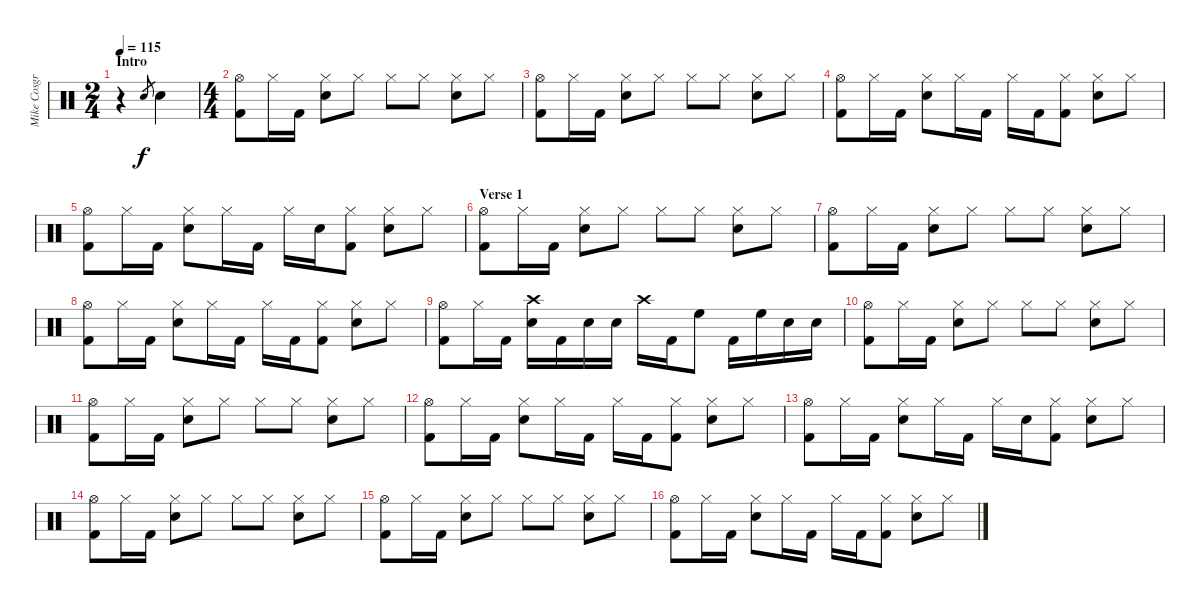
\track ("Mike Cosgrove" "Mike Cosgr") {instrument percussion}
\staff {score}
\articulation defaults
\ts (2 4)
\section ("" "Intro")
\tempo 115
\clef neutral
\ks c
r.4{dy f} "Electric Snare (hit)".8{gr} "Electric Snare (hit)".4 |
\ts (4 4)
("Hi-Hat (open)" "Kick (hit) 2").8 "Hi-Hat (closed)".16 "Kick (hit) 2".16 ("Hi-Hat (closed)" "Electric Snare (hit)").8 "Hi-Hat (closed)".8 "Hi-Hat (closed)".8 "Hi-Hat (closed)".8 ("Hi-Hat (closed)" "Electric Snare (hit)").8 "Hi-Hat (closed)".8 |
("Hi-Hat (open)" "Kick (hit) 2").8 "Hi-Hat (closed)".16 "Kick (hit) 2".16 ("Hi-Hat (closed)" "Electric Snare (hit)").8 "Hi-Hat (closed)".8 "Hi-Hat (closed)".8 "Hi-Hat (closed)".8 ("Hi-Hat (closed)" "Electric Snare (hit)").8 "Hi-Hat (closed)".8 |
("Hi-Hat (open)" "Kick (hit) 2").8 "Hi-Hat (closed)".16 "Kick (hit) 2".16 ("Hi-Hat (closed)" "Electric Snare (hit)").8 "Hi-Hat (closed)".16 "Kick (hit) 2".16 "Hi-Hat (closed)".16 "Kick (hit) 2".16 ("Hi-Hat (closed)" "Kick (hit) 2").8 ("Hi-Hat (closed)" "Electric Snare (hit)").8 "Hi-Hat (closed)".8 |
("Hi-Hat (open)" "Kick (hit) 2").8 "Hi-Hat (closed)".16 "Kick (hit) 2".16 ("Hi-Hat (closed)" "Electric Snare (hit)").8 "Hi-Hat (closed)".16 "Kick (hit) 2".16 "Hi-Hat (closed)".16 "Electric Snare (hit)".16 ("Hi-Hat (closed)" "Kick (hit) 2").8 ("Hi-Hat (closed)" "Electric Snare (hit)").8 "Hi-Hat (closed)".8 |
\section ("" "Verse 1")
("Hi-Hat (open)" "Kick (hit) 2").8 "Hi-Hat (closed)".16 "Kick (hit) 2".16 ("Hi-Hat (closed)" "Electric Snare (hit)").8 "Hi-Hat (closed)".8 "Hi-Hat (closed)".8 "Hi-Hat (closed)".8 ("Hi-Hat (closed)" "Electric Snare (hit)").8 "Hi-Hat (closed)".8 |
("Hi-Hat (open)" "Kick (hit) 2").8 "Hi-Hat (closed)".16 "Kick (hit) 2".16 ("Hi-Hat (closed)" "Electric Snare (hit)").8 "Hi-Hat (closed)".8 "Hi-Hat (closed)".8 "Hi-Hat (closed)".8 ("Hi-Hat (closed)" "Electric Snare (hit)").8 "Hi-Hat (closed)".8 |
("Hi-Hat (open)" "Kick (hit) 2").8 "Hi-Hat (closed)".16 "Kick (hit) 2".16 ("Hi-Hat (closed)" "Electric Snare (hit)").8 "Hi-Hat (closed)".16 "Kick (hit) 2".16 "Hi-Hat (closed)".16 "Kick (hit) 2".16 ("Hi-Hat (closed)" "Kick (hit) 2").8 ("Hi-Hat (closed)" "Electric Snare (hit)").8 "Hi-Hat (closed)".8 |
("Hi-Hat (open)" "Kick (hit) 2").8 "Hi-Hat (closed)".16 "Kick (hit) 2".16 ("Crash high (hit)" "Electric Snare (hit)").16 "Kick (hit) 2".16 "Electric Snare (hit)".16 "Electric Snare (hit)".16 "Crash high (hit)".16 "Kick (hit) 2".16 "High Floor Tom (hit)".8 "Kick (hit) 2".16 "High Floor Tom (hit)".16 "Electric Snare (hit)".16 "Electric Snare (hit)".16 |
("Hi-Hat (open)" "Kick (hit) 2").8 "Hi-Hat (closed)".16 "Kick (hit) 2".16 ("Hi-Hat (closed)" "Electric Snare (hit)").8 "Hi-Hat (closed)".8 "Hi-Hat (closed)".8 "Hi-Hat (closed)".8 ("Hi-Hat (closed)" "Electric Snare (hit)").8 "Hi-Hat (closed)".8 |
("Hi-Hat (open)" "Kick (hit) 2").8 "Hi-Hat (closed)".16 "Kick (hit) 2".16 ("Hi-Hat (closed)" "Electric Snare (hit)").8 "Hi-Hat (closed)".8 "Hi-Hat (closed)".8 "Hi-Hat (closed)".8 ("Hi-Hat (closed)" "Electric Snare (hit)").8 "Hi-Hat (closed)".8 |
("Hi-Hat (open)" "Kick (hit) 2").8 "Hi-Hat (closed)".16 "Kick (hit) 2".16 ("Hi-Hat (closed)" "Electric Snare (hit)").8 "Hi-Hat (closed)".16 "Kick (hit) 2".16 "Hi-Hat (closed)".16 "Kick (hit) 2".16 ("Hi-Hat (closed)" "Kick (hit) 2").8 ("Hi-Hat (closed)" "Electric Snare (hit)").8 "Hi-Hat (closed)".8 |
("Hi-Hat (open)" "Kick (hit) 2").8 "Hi-Hat (closed)".16 "Kick (hit) 2".16 ("Hi-Hat (closed)" "Electric Snare (hit)").8 "Hi-Hat (closed)".16 "Kick (hit) 2".16 "Hi-Hat (closed)".16 "Electric Snare (hit)".16 ("Hi-Hat (closed)" "Kick (hit) 2").8 ("Hi-Hat (closed)" "Electric Snare (hit)").8 "Hi-Hat (closed)".8 |
("Hi-Hat (open)" "Kick (hit) 2").8 "Hi-Hat (closed)".16 "Kick (hit) 2".16 ("Hi-Hat (closed)" "Electric Snare (hit)").8 "Hi-Hat (closed)".8 "Hi-Hat (closed)".8 "Hi-Hat (closed)".8 ("Hi-Hat (closed)" "Electric Snare (hit)").8 "Hi-Hat (closed)".8 |
("Hi-Hat (open)" "Kick (hit) 2").8 "Hi-Hat (closed)".16 "Kick (hit) 2".16 ("Hi-Hat (closed)" "Electric Snare (hit)").8 "Hi-Hat (closed)".8 "Hi-Hat (closed)".8 "Hi-Hat (closed)".8 ("Hi-Hat (closed)" "Electric Snare (hit)").8 "Hi-Hat (closed)".8 |
("Hi-Hat (open)" "Kick (hit) 2").8 "Hi-Hat (closed)".16 "Kick (hit) 2".16 ("Hi-Hat (closed)" "Electric Snare (hit)").8 "Hi-Hat (closed)".16 "Kick (hit) 2".16 "Hi-Hat (closed)".16 "Kick (hit) 2".16 ("Hi-Hat (closed)" "Kick (hit) 2").8 ("Hi-Hat (closed)" "Electric Snare (hit)").8 "Hi-Hat (closed)".8
